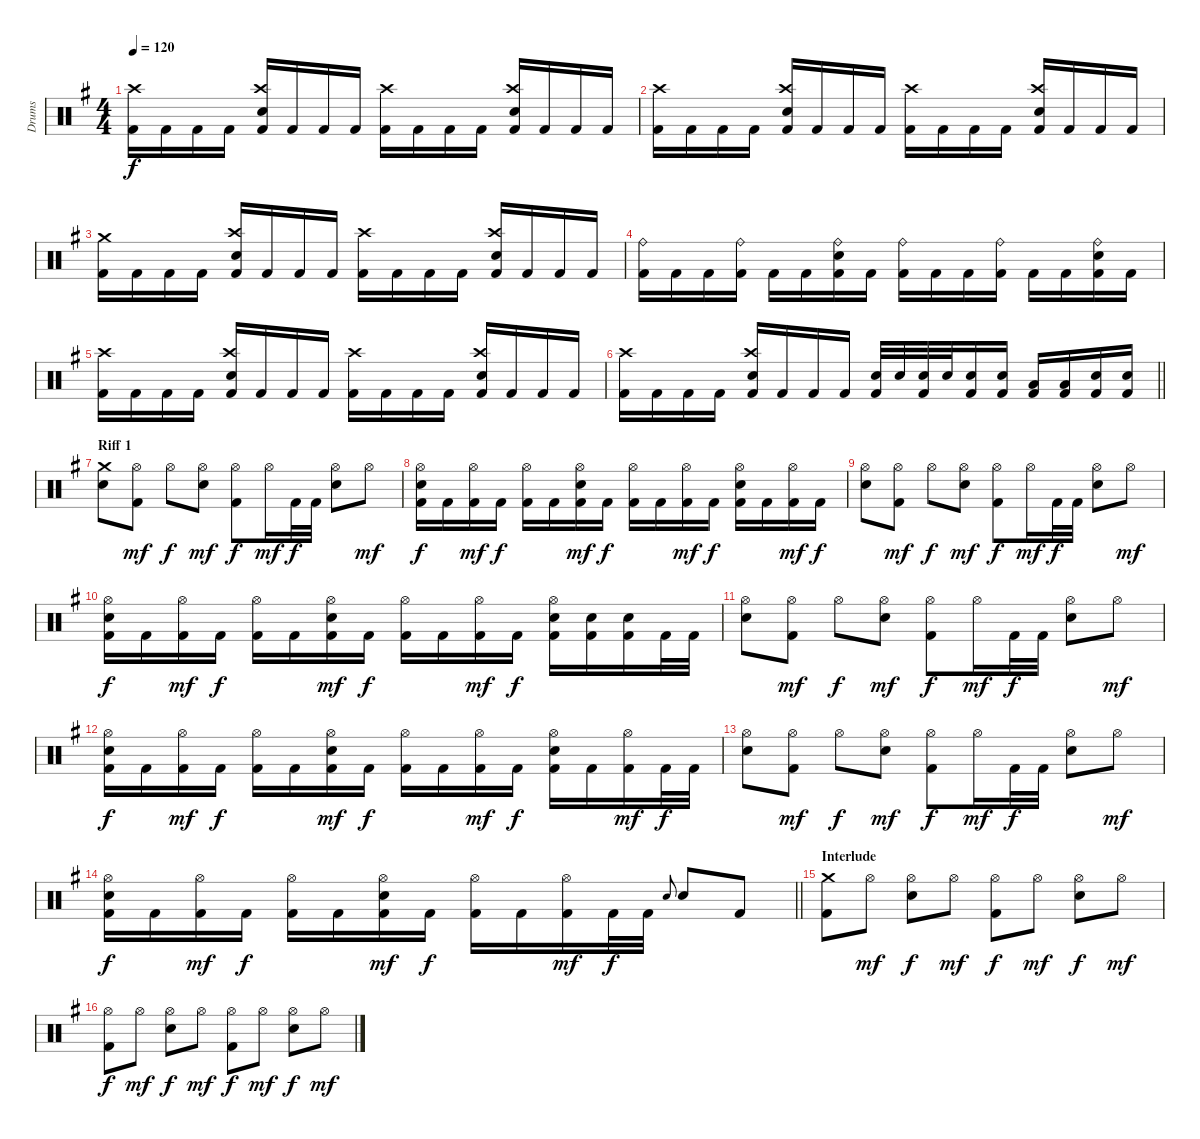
\track ("Drums" "Drums") {instrument percussion}
\staff {score}
\articulation defaults
\ts (4 4)
\tempo 120
\clef neutral
\ks eminor
("Kick (hit) 2" "Crash high (hit)").16{dy f} "Kick (hit) 2".16 "Kick (hit) 2".16 "Kick (hit) 2".16 ("Kick (hit) 2" "Electric Snare (hit)" "Crash high (hit)").16 "Kick (hit) 2".16 "Kick (hit) 2".16 "Kick (hit) 2".16 ("Kick (hit) 2" "Crash high (hit)").16 "Kick (hit) 2".16 "Kick (hit) 2".16 "Kick (hit) 2".16 ("Kick (hit) 2" "Crash high (hit)" "Electric Snare (hit)").16 "Kick (hit) 2".16 "Kick (hit) 2".16 "Kick (hit) 2".16 |
("Kick (hit) 2" "Crash high (hit)").16 "Kick (hit) 2".16 "Kick (hit) 2".16 "Kick (hit) 2".16 ("Kick (hit) 2" "Electric Snare (hit)" "Crash high (hit)").16 "Kick (hit) 2".16 "Kick (hit) 2".16 "Kick (hit) 2".16 ("Kick (hit) 2" "Crash high (hit)").16 "Kick (hit) 2".16 "Kick (hit) 2".16 "Kick (hit) 2".16 ("Kick (hit) 2" "Crash high (hit)" "Electric Snare (hit)").16 "Kick (hit) 2".16 "Kick (hit) 2".16 "Kick (hit) 2".16 |
("Kick (hit) 2" "Crash medium (hit)").16 "Kick (hit) 2".16 "Kick (hit) 2".16 "Kick (hit) 2".16 ("Kick (hit) 2" "Electric Snare (hit)" "Crash high (hit)").16 "Kick (hit) 2".16 "Kick (hit) 2".16 "Kick (hit) 2".16 ("Kick (hit) 2" "Crash high (hit)").16 "Kick (hit) 2".16 "Kick (hit) 2".16 "Kick (hit) 2".16 ("Kick (hit) 2" "Crash high (hit)" "Electric Snare (hit)").16 "Kick (hit) 2".16 "Kick (hit) 2".16 "Kick (hit) 2".16 |
("Kick (hit) 2" "Ride (bell)").16 "Kick (hit) 2".16 "Kick (hit) 2".16 ("Kick (hit) 2" "Ride (bell)").16 "Kick (hit) 2".16 "Kick (hit) 2".16 ("Kick (hit) 2" "Electric Snare (hit)" "Ride (bell)").16 "Kick (hit) 2".16 ("Kick (hit) 2" "Ride (bell)").16 "Kick (hit) 2".16 "Kick (hit) 2".16 ("Kick (hit) 2" "Ride (bell)").16 "Kick (hit) 2".16 "Kick (hit) 2".16 ("Kick (hit) 2" "Electric Snare (hit)" "Ride (bell)").16 "Kick (hit) 2".16 |
("Kick (hit) 2" "Crash high (hit)").16 "Kick (hit) 2".16 "Kick (hit) 2".16 "Kick (hit) 2".16 ("Kick (hit) 2" "Electric Snare (hit)" "Crash high (hit)").16 "Kick (hit) 2".16 "Kick (hit) 2".16 "Kick (hit) 2".16 ("Kick (hit) 2" "Crash high (hit)").16 "Kick (hit) 2".16 "Kick (hit) 2".16 "Kick (hit) 2".16 ("Kick (hit) 2" "Crash high (hit)" "Electric Snare (hit)").16 "Kick (hit) 2".16 "Kick (hit) 2".16 "Kick (hit) 2".16 |
\barLineRight lightlight
("Kick (hit) 2" "Crash high (hit)").16 "Kick (hit) 2".16 "Kick (hit) 2".16 "Kick (hit) 2".16 ("Kick (hit) 2" "Electric Snare (hit)" "Crash high (hit)").16 "Kick (hit) 2".16 "Kick (hit) 2".16 "Kick (hit) 2".16 ("Electric Snare (hit)" "Kick (hit) 2").32 "Electric Snare (hit)".32 ("Electric Snare (hit)" "Kick (hit) 2").32 "Electric Snare (hit)".32 ("Kick (hit) 2" "Electric Snare (hit)").16 ("Kick (hit) 2" "Electric Snare (hit)").16 ("Kick (hit) 2" "Low Tom (hit)").16 ("Kick (hit) 2" "Low Tom (hit)").16 ("Kick (hit) 2" "Electric Snare (hit)").16 ("Kick (hit) 2" "Electric Snare (hit)").16 |
\section ("" "Riff 1")
("Crash medium (hit)" "Electric Snare (hit)").8 ("Hi-Hat (open)" "Kick (hit) 2").8{dy mf} "Hi-Hat (open)".8{dy f} ("Hi-Hat (open)" "Electric Snare (hit)").8{dy mf} ("Hi-Hat (open)" "Kick (hit) 2").8{dy f} "Hi-Hat (open)".16{dy mf} "Kick (hit) 2".32{dy f} "Kick (hit) 2".32 ("Electric Snare (hit)" "Hi-Hat (open)").8 "Hi-Hat (open)".8{dy mf} |
("Hi-Hat (open)" "Kick (hit) 2" "Electric Snare (hit)").16{dy f} "Kick (hit) 2".16 ("Hi-Hat (open)" "Kick (hit) 2").16{dy mf} "Kick (hit) 2".16{dy f} ("Hi-Hat (open)" "Kick (hit) 2").16 "Kick (hit) 2".16 ("Hi-Hat (open)" "Kick (hit) 2" "Electric Snare (hit)").16{dy mf} "Kick (hit) 2".16{dy f} ("Hi-Hat (open)" "Kick (hit) 2").16 "Kick (hit) 2".16 ("Hi-Hat (open)" "Kick (hit) 2").16{dy mf} "Kick (hit) 2".16{dy f} ("Hi-Hat (open)" "Kick (hit) 2" "Electric Snare (hit)").16 "Kick (hit) 2".16 ("Hi-Hat (open)" "Kick (hit) 2").16{dy mf} "Kick (hit) 2".16{dy f} |
("Hi-Hat (open)" "Electric Snare (hit)").8 ("Hi-Hat (open)" "Kick (hit) 2").8{dy mf} "Hi-Hat (open)".8{dy f} ("Hi-Hat (open)" "Electric Snare (hit)").8{dy mf} ("Hi-Hat (open)" "Kick (hit) 2").8{dy f} "Hi-Hat (open)".16{dy mf} "Kick (hit) 2".32{dy f} "Kick (hit) 2".32 ("Electric Snare (hit)" "Hi-Hat (open)").8 "Hi-Hat (open)".8{dy mf} |
("Hi-Hat (open)" "Kick (hit) 2" "Electric Snare (hit)").16{dy f} "Kick (hit) 2".16 ("Hi-Hat (open)" "Kick (hit) 2").16{dy mf} "Kick (hit) 2".16{dy f} ("Hi-Hat (open)" "Kick (hit) 2").16 "Kick (hit) 2".16 ("Hi-Hat (open)" "Kick (hit) 2" "Electric Snare (hit)").16{dy mf} "Kick (hit) 2".16{dy f} ("Hi-Hat (open)" "Kick (hit) 2").16 "Kick (hit) 2".16 ("Hi-Hat (open)" "Kick (hit) 2").16{dy mf} "Kick (hit) 2".16{dy f} ("Hi-Hat (open)" "Kick (hit) 2" "Electric Snare (hit)").16 ("Electric Snare (hit)" "Kick (hit) 2").16 ("Electric Snare (hit)" "Kick (hit) 2").16 "Kick (hit) 2".32 "Kick (hit) 2".32 |
("Hi-Hat (open)" "Electric Snare (hit)").8 ("Hi-Hat (open)" "Kick (hit) 2").8{dy mf} "Hi-Hat (open)".8{dy f} ("Hi-Hat (open)" "Electric Snare (hit)").8{dy mf} ("Hi-Hat (open)" "Kick (hit) 2").8{dy f} "Hi-Hat (open)".16{dy mf} "Kick (hit) 2".32{dy f} "Kick (hit) 2".32 ("Electric Snare (hit)" "Hi-Hat (open)").8 "Hi-Hat (open)".8{dy mf} |
("Hi-Hat (open)" "Kick (hit) 2" "Electric Snare (hit)").16{dy f} "Kick (hit) 2".16 ("Hi-Hat (open)" "Kick (hit) 2").16{dy mf} "Kick (hit) 2".16{dy f} ("Hi-Hat (open)" "Kick (hit) 2").16 "Kick (hit) 2".16 ("Hi-Hat (open)" "Kick (hit) 2" "Electric Snare (hit)").16{dy mf} "Kick (hit) 2".16{dy f} ("Hi-Hat (open)" "Kick (hit) 2").16 "Kick (hit) 2".16 ("Hi-Hat (open)" "Kick (hit) 2").16{dy mf} "Kick (hit) 2".16{dy f} ("Hi-Hat (open)" "Kick (hit) 2" "Electric Snare (hit)").16 "Kick (hit) 2".16 ("Hi-Hat (open)" "Kick (hit) 2").16{dy mf} "Kick (hit) 2".32{dy f} "Kick (hit) 2".32 |
("Hi-Hat (open)" "Electric Snare (hit)").8 ("Hi-Hat (open)" "Kick (hit) 2").8{dy mf} "Hi-Hat (open)".8{dy f} ("Hi-Hat (open)" "Electric Snare (hit)").8{dy mf} ("Hi-Hat (open)" "Kick (hit) 2").8{dy f} "Hi-Hat (open)".16{dy mf} "Kick (hit) 2".32{dy f} "Kick (hit) 2".32 ("Electric Snare (hit)" "Hi-Hat (open)").8 "Hi-Hat (open)".8{dy mf} |
\barLineRight lightlight
("Hi-Hat (open)" "Kick (hit) 2" "Electric Snare (hit)").16{dy f} "Kick (hit) 2".16 ("Hi-Hat (open)" "Kick (hit) 2").16{dy mf} "Kick (hit) 2".16{dy f} ("Hi-Hat (open)" "Kick (hit) 2").16 "Kick (hit) 2".16 ("Hi-Hat (open)" "Kick (hit) 2" "Electric Snare (hit)").16{dy mf} "Kick (hit) 2".16{dy f} ("Hi-Hat (open)" "Kick (hit) 2").16 "Kick (hit) 2".16 ("Hi-Hat (open)" "Kick (hit) 2").16{dy mf} "Kick (hit) 2".32{dy f} "Kick (hit) 2".32 "Electric Snare (hit)".8{gr onbeat} "Electric Snare (hit)".8 "Kick (hit) 2".8 |
\section ("" "Interlude")
("Crash medium (hit)" "Kick (hit) 2").8 "Hi-Hat (open)".8{dy mf} ("Electric Snare (hit)" "Hi-Hat (open)").8{dy f} "Hi-Hat (open)".8{dy mf} ("Kick (hit) 2" "Hi-Hat (open)").8{dy f} "Hi-Hat (open)".8{dy mf} ("Electric Snare (hit)" "Hi-Hat (open)").8{dy f} "Hi-Hat (open)".8{dy mf} |
("Kick (hit) 2" "Hi-Hat (open)").8{dy f} "Hi-Hat (open)".8{dy mf} ("Electric Snare (hit)" "Hi-Hat (open)").8{dy f} "Hi-Hat (open)".8{dy mf} ("Kick (hit) 2" "Hi-Hat (open)").8{dy f} "Hi-Hat (open)".8{dy mf} ("Electric Snare (hit)" "Hi-Hat (open)").8{dy f} "Hi-Hat (open)".8{dy mf}
